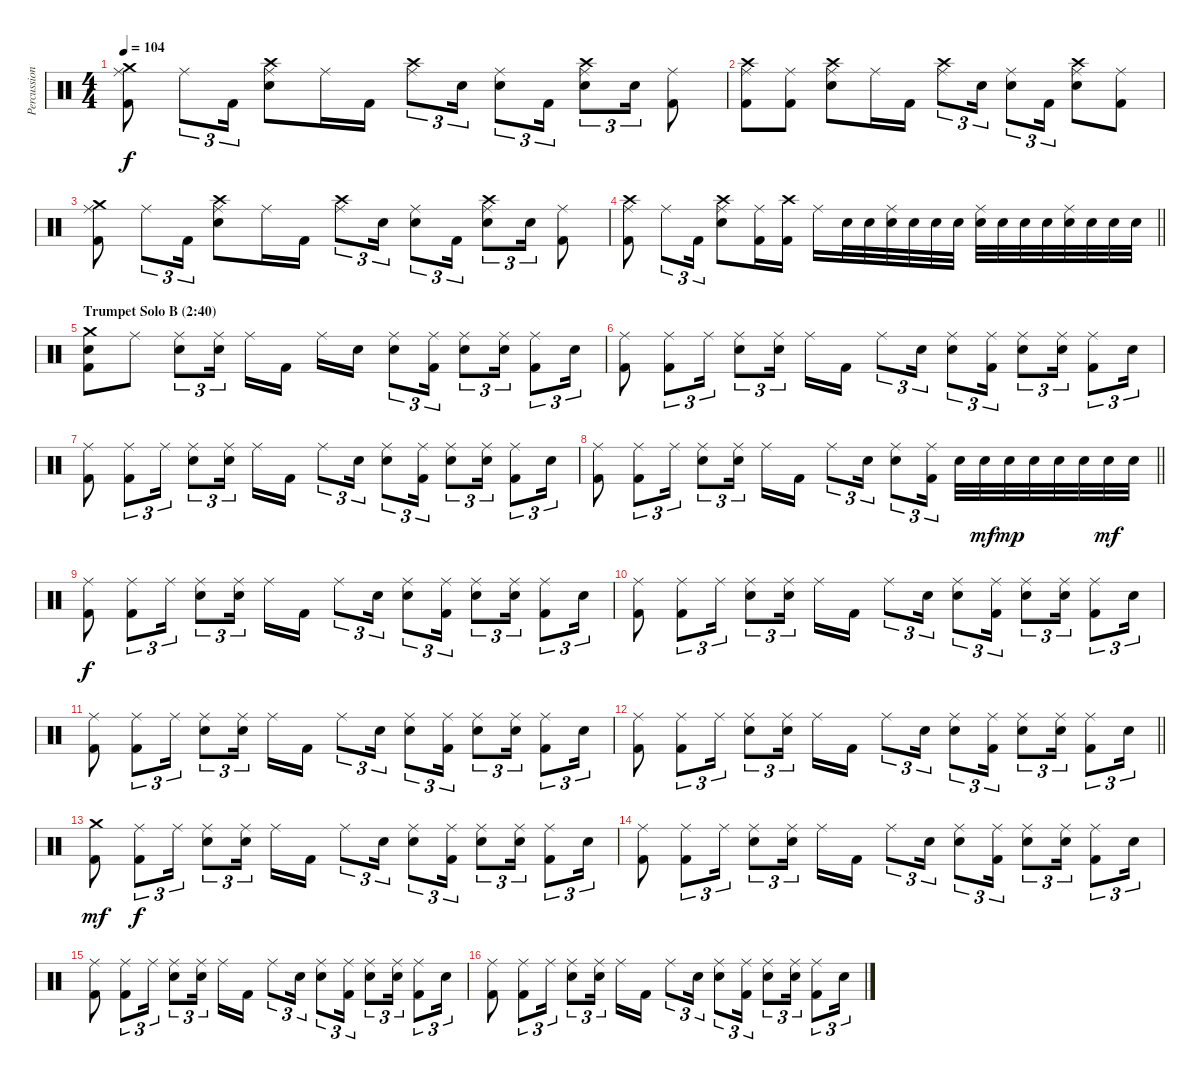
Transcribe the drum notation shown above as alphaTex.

\track ("Percussion" "Percussion") {instrument percussion}
\staff {score}
\articulation defaults
\ts (4 4)
\tempo 104
\clef neutral
\ks c
("Crash medium (hit)" "Ride (middle)" "Kick (hit) 2").8{dy f} "Ride (middle)".8{tu (3 2)} "Kick (hit) 2".16{tu (3 2)} ("Crash high (hit)" "Ride (middle)" "Electric Snare (hit)").8 "Ride (middle)".16 "Kick (hit) 2".16 ("Crash high (hit)" "Ride (middle)").8{tu (3 2)} "Electric Snare (hit)".16{tu (3 2)} ("Ride (middle)" "Electric Snare (hit)").8{tu (3 2)} "Kick (hit) 2".16{tu (3 2)} ("Crash high (hit)" "Ride (middle)" "Electric Snare (hit)").8{tu (3 2)} "Electric Snare (hit)".16{tu (3 2)} ("Ride (middle)" "Kick (hit) 2").8 |
("Crash high (hit)" "Ride (middle)" "Kick (hit) 2").8 ("Ride (middle)" "Kick (hit) 2").8 ("Crash high (hit)" "Ride (middle)" "Electric Snare (hit)").8 "Ride (middle)".16 "Kick (hit) 2".16 ("Crash high (hit)" "Ride (middle)").8{tu (3 2)} "Electric Snare (hit)".16{tu (3 2)} ("Ride (middle)" "Electric Snare (hit)").8{tu (3 2)} "Kick (hit) 2".16{tu (3 2)} ("Crash high (hit)" "Ride (middle)" "Electric Snare (hit)").8 ("Ride (middle)" "Kick (hit) 2").8 |
("Crash medium (hit)" "Ride (middle)" "Kick (hit) 2").8 "Ride (middle)".8{tu (3 2)} "Kick (hit) 2".16{tu (3 2)} ("Crash high (hit)" "Ride (middle)" "Electric Snare (hit)").8 "Ride (middle)".16 "Kick (hit) 2".16 ("Crash high (hit)" "Ride (middle)").8{tu (3 2)} "Electric Snare (hit)".16{tu (3 2)} ("Ride (middle)" "Electric Snare (hit)").8{tu (3 2)} "Kick (hit) 2".16{tu (3 2)} ("Crash high (hit)" "Ride (middle)" "Electric Snare (hit)").8{tu (3 2)} "Electric Snare (hit)".16{tu (3 2)} ("Ride (middle)" "Kick (hit) 2").8 |
\barLineRight lightlight
("Crash high (hit)" "Ride (middle)" "Kick (hit) 2").8 "Ride (middle)".8{tu (3 2)} "Kick (hit) 2".16{tu (3 2)} ("Crash high (hit)" "Ride (middle)" "Electric Snare (hit)").8 ("Ride (middle)" "Kick (hit) 2").16 ("Crash high (hit)" "Kick (hit) 2").16 "Ride (middle)".16 "Snare (hit) 2".32 "Snare (hit) 2".32 ("Ride (middle)" "Snare (hit) 2").32 "Snare (hit) 2".32 "Snare (hit) 2".32 "Snare (hit) 2".32 ("Ride (middle)" "Snare (hit) 2").32 "Snare (hit) 2".32 "Snare (hit) 2".32 "Snare (hit) 2".32 ("Ride (middle)" "Snare (hit) 2").32 "Snare (hit) 2".32 "Snare (hit) 2".32 "Snare (hit) 2".32 |
\section ("" "Trumpet Solo B (2:40)")
("Crash medium (hit)" "Snare (hit) 2" "Kick (hit) 2").8 "Ride (middle)".8{volume 8} ("Ride (middle)" "Electric Snare (hit)").8{tu (3 2)} ("Ride (middle)" "Electric Snare (hit)").16{tu (3 2) beam splitsecondary} "Ride (middle)".16 "Kick (hit) 2".16 "Ride (middle)".16 "Electric Snare (hit)".16 ("Ride (middle)" "Electric Snare (hit)").8{tu (3 2)} ("Ride (middle)" "Kick (hit) 2").16{tu (3 2)} ("Ride (middle)" "Electric Snare (hit)").8{tu (3 2)} ("Ride (middle)" "Electric Snare (hit)").16{tu (3 2)} ("Ride (middle)" "Kick (hit) 2").8{tu (3 2)} "Electric Snare (hit)".16{tu (3 2)} |
("Ride (middle)" "Kick (hit) 2").8 ("Ride (middle)" "Kick (hit) 2").8{tu (3 2)} "Ride (middle)".16{tu (3 2)} ("Ride (middle)" "Electric Snare (hit)").8{tu (3 2)} ("Ride (middle)" "Electric Snare (hit)").16{tu (3 2) beam splitsecondary} "Ride (middle)".16 "Kick (hit) 2".16 "Ride (middle)".8{tu (3 2)} "Electric Snare (hit)".16{tu (3 2)} ("Ride (middle)" "Electric Snare (hit)").8{tu (3 2)} ("Ride (middle)" "Kick (hit) 2").16{tu (3 2)} ("Ride (middle)" "Electric Snare (hit)").8{tu (3 2)} ("Ride (middle)" "Electric Snare (hit)").16{tu (3 2)} ("Ride (middle)" "Kick (hit) 2").8{tu (3 2)} "Electric Snare (hit)".16{tu (3 2)} |
("Ride (middle)" "Kick (hit) 2").8 ("Ride (middle)" "Kick (hit) 2").8{tu (3 2)} "Ride (middle)".16{tu (3 2)} ("Ride (middle)" "Electric Snare (hit)").8{tu (3 2)} ("Ride (middle)" "Electric Snare (hit)").16{tu (3 2) beam splitsecondary} "Ride (middle)".16 "Kick (hit) 2".16 "Ride (middle)".8{tu (3 2)} "Electric Snare (hit)".16{tu (3 2)} ("Ride (middle)" "Electric Snare (hit)").8{tu (3 2)} ("Ride (middle)" "Kick (hit) 2").16{tu (3 2)} ("Ride (middle)" "Electric Snare (hit)").8{tu (3 2)} ("Ride (middle)" "Electric Snare (hit)").16{tu (3 2)} ("Ride (middle)" "Kick (hit) 2").8{tu (3 2)} "Electric Snare (hit)".16{tu (3 2)} |
\barLineRight lightlight
("Ride (middle)" "Kick (hit) 2").8 ("Ride (middle)" "Kick (hit) 2").8{tu (3 2)} "Ride (middle)".16{tu (3 2)} ("Ride (middle)" "Electric Snare (hit)").8{tu (3 2)} ("Ride (middle)" "Electric Snare (hit)").16{tu (3 2) beam splitsecondary} "Ride (middle)".16 "Kick (hit) 2".16 "Ride (middle)".8{tu (3 2)} "Electric Snare (hit)".16{tu (3 2)} ("Ride (middle)" "Electric Snare (hit)").8{tu (3 2)} ("Ride (middle)" "Kick (hit) 2").16{tu (3 2)} "Electric Snare (hit)".32 "Electric Snare (hit)".32{dy mf} "Electric Snare (hit)".32{dy mp} "Electric Snare (hit)".32 "Electric Snare (hit)".32 "Electric Snare (hit)".32 "Electric Snare (hit)".32{dy mf} "Electric Snare (hit)".32 |
("Ride (middle)" "Kick (hit) 2").8{dy f} ("Ride (middle)" "Kick (hit) 2").8{tu (3 2)} "Ride (middle)".16{tu (3 2)} ("Ride (middle)" "Electric Snare (hit)").8{tu (3 2)} ("Ride (middle)" "Electric Snare (hit)").16{tu (3 2) beam splitsecondary} "Ride (middle)".16 "Kick (hit) 2".16 "Ride (middle)".8{tu (3 2)} "Electric Snare (hit)".16{tu (3 2)} ("Ride (middle)" "Electric Snare (hit)").8{tu (3 2)} ("Ride (middle)" "Kick (hit) 2").16{tu (3 2)} ("Ride (middle)" "Electric Snare (hit)").8{tu (3 2)} ("Ride (middle)" "Electric Snare (hit)").16{tu (3 2)} ("Ride (middle)" "Kick (hit) 2").8{tu (3 2)} "Electric Snare (hit)".16{tu (3 2)} |
("Ride (middle)" "Kick (hit) 2").8 ("Ride (middle)" "Kick (hit) 2").8{tu (3 2)} "Ride (middle)".16{tu (3 2)} ("Ride (middle)" "Electric Snare (hit)").8{tu (3 2)} ("Ride (middle)" "Electric Snare (hit)").16{tu (3 2) beam splitsecondary} "Ride (middle)".16 "Kick (hit) 2".16 "Ride (middle)".8{tu (3 2)} "Electric Snare (hit)".16{tu (3 2)} ("Ride (middle)" "Electric Snare (hit)").8{tu (3 2)} ("Ride (middle)" "Kick (hit) 2").16{tu (3 2)} ("Ride (middle)" "Electric Snare (hit)").8{tu (3 2)} ("Ride (middle)" "Electric Snare (hit)").16{tu (3 2)} ("Ride (middle)" "Kick (hit) 2").8{tu (3 2)} "Electric Snare (hit)".16{tu (3 2)} |
("Ride (middle)" "Kick (hit) 2").8 ("Ride (middle)" "Kick (hit) 2").8{tu (3 2)} "Ride (middle)".16{tu (3 2)} ("Ride (middle)" "Electric Snare (hit)").8{tu (3 2)} ("Ride (middle)" "Electric Snare (hit)").16{tu (3 2) beam splitsecondary} "Ride (middle)".16 "Kick (hit) 2".16 "Ride (middle)".8{tu (3 2)} "Electric Snare (hit)".16{tu (3 2)} ("Ride (middle)" "Electric Snare (hit)").8{tu (3 2)} ("Ride (middle)" "Kick (hit) 2").16{tu (3 2)} ("Ride (middle)" "Electric Snare (hit)").8{tu (3 2)} ("Ride (middle)" "Electric Snare (hit)").16{tu (3 2)} ("Ride (middle)" "Kick (hit) 2").8{tu (3 2)} "Electric Snare (hit)".16{tu (3 2)} |
\barLineRight lightlight
("Ride (middle)" "Kick (hit) 2").8 ("Ride (middle)" "Kick (hit) 2").8{tu (3 2)} "Ride (middle)".16{tu (3 2)} ("Ride (middle)" "Electric Snare (hit)").8{tu (3 2)} ("Ride (middle)" "Electric Snare (hit)").16{tu (3 2) beam splitsecondary} "Ride (middle)".16 "Kick (hit) 2".16 "Ride (middle)".8{tu (3 2)} "Electric Snare (hit)".16{tu (3 2)} ("Ride (middle)" "Electric Snare (hit)").8{tu (3 2)} ("Ride (middle)" "Kick (hit) 2").16{tu (3 2)} ("Ride (middle)" "Electric Snare (hit)").8{tu (3 2)} ("Ride (middle)" "Electric Snare (hit)").16{tu (3 2)} ("Ride (middle)" "Kick (hit) 2").8{tu (3 2)} "Electric Snare (hit)".16{tu (3 2)} |
("Crash medium (hit)" "Kick (hit) 2").8{dy mf} ("Ride (middle)" "Kick (hit) 2").8{tu (3 2) dy f} "Ride (middle)".16{tu (3 2)} ("Ride (middle)" "Electric Snare (hit)").8{tu (3 2)} ("Ride (middle)" "Electric Snare (hit)").16{tu (3 2) beam splitsecondary} "Ride (middle)".16 "Kick (hit) 2".16 "Ride (middle)".8{tu (3 2)} "Electric Snare (hit)".16{tu (3 2)} ("Ride (middle)" "Electric Snare (hit)").8{tu (3 2)} ("Ride (middle)" "Kick (hit) 2").16{tu (3 2)} ("Ride (middle)" "Electric Snare (hit)").8{tu (3 2)} ("Ride (middle)" "Electric Snare (hit)").16{tu (3 2)} ("Ride (middle)" "Kick (hit) 2").8{tu (3 2)} "Electric Snare (hit)".16{tu (3 2)} |
("Ride (middle)" "Kick (hit) 2").8 ("Ride (middle)" "Kick (hit) 2").8{tu (3 2)} "Ride (middle)".16{tu (3 2)} ("Ride (middle)" "Electric Snare (hit)").8{tu (3 2)} ("Ride (middle)" "Electric Snare (hit)").16{tu (3 2) beam splitsecondary} "Ride (middle)".16 "Kick (hit) 2".16 "Ride (middle)".8{tu (3 2)} "Electric Snare (hit)".16{tu (3 2)} ("Ride (middle)" "Electric Snare (hit)").8{tu (3 2)} ("Ride (middle)" "Kick (hit) 2").16{tu (3 2)} ("Ride (middle)" "Electric Snare (hit)").8{tu (3 2)} ("Ride (middle)" "Electric Snare (hit)").16{tu (3 2)} ("Ride (middle)" "Kick (hit) 2").8{tu (3 2)} "Electric Snare (hit)".16{tu (3 2)} |
("Ride (middle)" "Kick (hit) 2").8 ("Ride (middle)" "Kick (hit) 2").8{tu (3 2)} "Ride (middle)".16{tu (3 2)} ("Ride (middle)" "Electric Snare (hit)").8{tu (3 2)} ("Ride (middle)" "Electric Snare (hit)").16{tu (3 2) beam splitsecondary} "Ride (middle)".16 "Kick (hit) 2".16 "Ride (middle)".8{tu (3 2)} "Electric Snare (hit)".16{tu (3 2)} ("Ride (middle)" "Electric Snare (hit)").8{tu (3 2)} ("Ride (middle)" "Kick (hit) 2").16{tu (3 2)} ("Ride (middle)" "Electric Snare (hit)").8{tu (3 2)} ("Ride (middle)" "Electric Snare (hit)").16{tu (3 2)} ("Ride (middle)" "Kick (hit) 2").8{tu (3 2)} "Electric Snare (hit)".16{tu (3 2)} |
("Ride (middle)" "Kick (hit) 2").8 ("Ride (middle)" "Kick (hit) 2").8{tu (3 2)} "Ride (middle)".16{tu (3 2)} ("Ride (middle)" "Electric Snare (hit)").8{tu (3 2)} ("Ride (middle)" "Electric Snare (hit)").16{tu (3 2) beam splitsecondary} "Ride (middle)".16 "Kick (hit) 2".16 "Ride (middle)".8{tu (3 2)} "Electric Snare (hit)".16{tu (3 2)} ("Ride (middle)" "Electric Snare (hit)").8{tu (3 2)} ("Ride (middle)" "Kick (hit) 2").16{tu (3 2)} ("Ride (middle)" "Electric Snare (hit)").8{tu (3 2)} ("Ride (middle)" "Electric Snare (hit)").16{tu (3 2)} ("Ride (middle)" "Kick (hit) 2").8{tu (3 2)} "Electric Snare (hit)".16{tu (3 2)}
